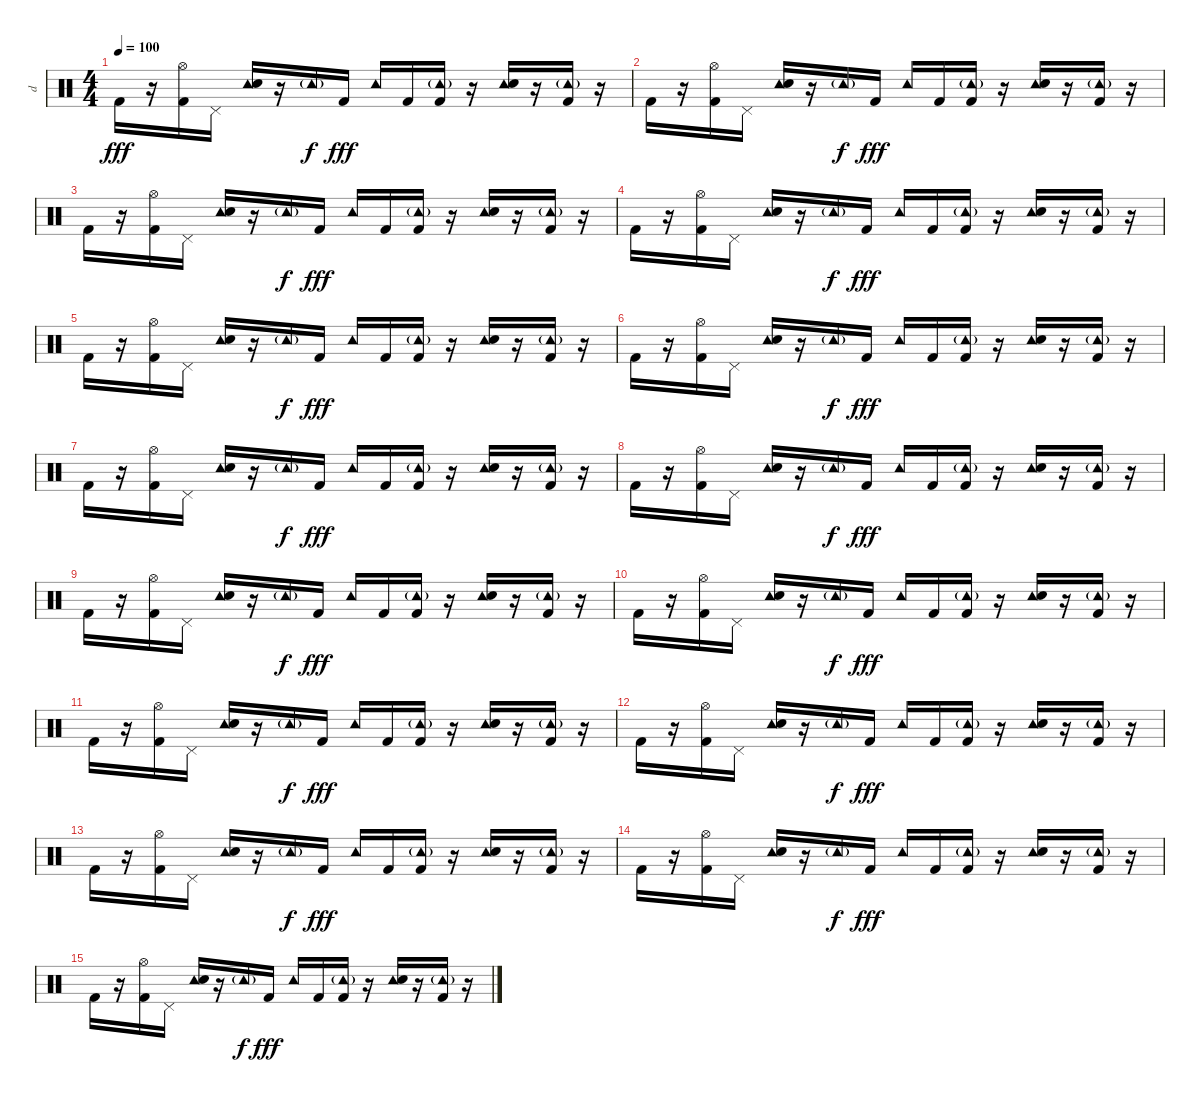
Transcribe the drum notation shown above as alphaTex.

\track ("d" "d") {instrument percussion}
\staff {score}
\articulation defaults
\ts (4 4)
\tempo 100
\clef neutral
\ks c "Kick (hit) 2".16{dy fff}
r.16 ("Hi-Hat (open)" "Kick (hit) 2").16 "Pedal Hi-Hat (hit)".16 ("Tambourine (hit)" "Snare (hit) 2").16 r.16 "Tambourine (hit)"{g}.16{dy f} "Kick (hit) 2".16{dy fff} "Tambourine (hit)".16 "Kick (hit) 2".16 ("Tambourine (hit)"{g} "Kick (hit) 2").16 r.16 ("Tambourine (hit)" "Snare (hit) 2").16 r.16 ("Tambourine (hit)"{g} "Kick (hit) 2").16 r.16 |
"Kick (hit) 2".16 r.16 ("Hi-Hat (open)" "Kick (hit) 2").16 "Pedal Hi-Hat (hit)".16 ("Tambourine (hit)" "Snare (hit) 2").16 r.16 "Tambourine (hit)"{g}.16{dy f} "Kick (hit) 2".16{dy fff} "Tambourine (hit)".16 "Kick (hit) 2".16 ("Tambourine (hit)"{g} "Kick (hit) 2").16 r.16 ("Tambourine (hit)" "Snare (hit) 2").16 r.16 ("Tambourine (hit)"{g} "Kick (hit) 2").16 r.16 |
"Kick (hit) 2".16 r.16 ("Hi-Hat (open)" "Kick (hit) 2").16 "Pedal Hi-Hat (hit)".16 ("Tambourine (hit)" "Snare (hit) 2").16 r.16 "Tambourine (hit)"{g}.16{dy f} "Kick (hit) 2".16{dy fff} "Tambourine (hit)".16 "Kick (hit) 2".16 ("Tambourine (hit)"{g} "Kick (hit) 2").16 r.16 ("Tambourine (hit)" "Snare (hit) 2").16 r.16 ("Tambourine (hit)"{g} "Kick (hit) 2").16 r.16 |
"Kick (hit) 2".16 r.16 ("Hi-Hat (open)" "Kick (hit) 2").16 "Pedal Hi-Hat (hit)".16 ("Tambourine (hit)" "Snare (hit) 2").16 r.16 "Tambourine (hit)"{g}.16{dy f} "Kick (hit) 2".16{dy fff} "Tambourine (hit)".16 "Kick (hit) 2".16 ("Tambourine (hit)"{g} "Kick (hit) 2").16 r.16 ("Tambourine (hit)" "Snare (hit) 2").16 r.16 ("Tambourine (hit)"{g} "Kick (hit) 2").16 r.16 |
"Kick (hit) 2".16 r.16 ("Hi-Hat (open)" "Kick (hit) 2").16 "Pedal Hi-Hat (hit)".16 ("Tambourine (hit)" "Snare (hit) 2").16 r.16 "Tambourine (hit)"{g}.16{dy f} "Kick (hit) 2".16{dy fff} "Tambourine (hit)".16 "Kick (hit) 2".16 ("Tambourine (hit)"{g} "Kick (hit) 2").16 r.16 ("Tambourine (hit)" "Snare (hit) 2").16 r.16 ("Tambourine (hit)"{g} "Kick (hit) 2").16 r.16 |
"Kick (hit) 2".16 r.16 ("Hi-Hat (open)" "Kick (hit) 2").16 "Pedal Hi-Hat (hit)".16 ("Tambourine (hit)" "Snare (hit) 2").16 r.16 "Tambourine (hit)"{g}.16{dy f} "Kick (hit) 2".16{dy fff} "Tambourine (hit)".16 "Kick (hit) 2".16 ("Tambourine (hit)"{g} "Kick (hit) 2").16 r.16 ("Tambourine (hit)" "Snare (hit) 2").16 r.16 ("Tambourine (hit)"{g} "Kick (hit) 2").16 r.16 |
"Kick (hit) 2".16 r.16 ("Hi-Hat (open)" "Kick (hit) 2").16 "Pedal Hi-Hat (hit)".16 ("Tambourine (hit)" "Snare (hit) 2").16 r.16 "Tambourine (hit)"{g}.16{dy f} "Kick (hit) 2".16{dy fff} "Tambourine (hit)".16 "Kick (hit) 2".16 ("Tambourine (hit)"{g} "Kick (hit) 2").16 r.16 ("Tambourine (hit)" "Snare (hit) 2").16 r.16 ("Tambourine (hit)"{g} "Kick (hit) 2").16 r.16 |
"Kick (hit) 2".16 r.16 ("Hi-Hat (open)" "Kick (hit) 2").16 "Pedal Hi-Hat (hit)".16 ("Tambourine (hit)" "Snare (hit) 2").16 r.16 "Tambourine (hit)"{g}.16{dy f} "Kick (hit) 2".16{dy fff} "Tambourine (hit)".16 "Kick (hit) 2".16 ("Tambourine (hit)"{g} "Kick (hit) 2").16 r.16 ("Tambourine (hit)" "Snare (hit) 2").16 r.16 ("Tambourine (hit)"{g} "Kick (hit) 2").16 r.16 |
"Kick (hit) 2".16 r.16 ("Hi-Hat (open)" "Kick (hit) 2").16 "Pedal Hi-Hat (hit)".16 ("Tambourine (hit)" "Snare (hit) 2").16 r.16 "Tambourine (hit)"{g}.16{dy f} "Kick (hit) 2".16{dy fff} "Tambourine (hit)".16 "Kick (hit) 2".16 ("Tambourine (hit)"{g} "Kick (hit) 2").16 r.16 ("Tambourine (hit)" "Snare (hit) 2").16 r.16 ("Tambourine (hit)"{g} "Kick (hit) 2").16 r.16 |
"Kick (hit) 2".16 r.16 ("Hi-Hat (open)" "Kick (hit) 2").16 "Pedal Hi-Hat (hit)".16 ("Tambourine (hit)" "Snare (hit) 2").16 r.16 "Tambourine (hit)"{g}.16{dy f} "Kick (hit) 2".16{dy fff} "Tambourine (hit)".16 "Kick (hit) 2".16 ("Tambourine (hit)"{g} "Kick (hit) 2").16 r.16 ("Tambourine (hit)" "Snare (hit) 2").16 r.16 ("Tambourine (hit)"{g} "Kick (hit) 2").16 r.16 |
"Kick (hit) 2".16 r.16 ("Hi-Hat (open)" "Kick (hit) 2").16 "Pedal Hi-Hat (hit)".16 ("Tambourine (hit)" "Snare (hit) 2").16 r.16 "Tambourine (hit)"{g}.16{dy f} "Kick (hit) 2".16{dy fff} "Tambourine (hit)".16 "Kick (hit) 2".16 ("Tambourine (hit)"{g} "Kick (hit) 2").16 r.16 ("Tambourine (hit)" "Snare (hit) 2").16 r.16 ("Tambourine (hit)"{g} "Kick (hit) 2").16 r.16 |
"Kick (hit) 2".16 r.16 ("Hi-Hat (open)" "Kick (hit) 2").16 "Pedal Hi-Hat (hit)".16 ("Tambourine (hit)" "Snare (hit) 2").16 r.16 "Tambourine (hit)"{g}.16{dy f} "Kick (hit) 2".16{dy fff} "Tambourine (hit)".16 "Kick (hit) 2".16 ("Tambourine (hit)"{g} "Kick (hit) 2").16 r.16 ("Tambourine (hit)" "Snare (hit) 2").16 r.16 ("Tambourine (hit)"{g} "Kick (hit) 2").16 r.16 |
"Kick (hit) 2".16 r.16 ("Hi-Hat (open)" "Kick (hit) 2").16 "Pedal Hi-Hat (hit)".16 ("Tambourine (hit)" "Snare (hit) 2").16 r.16 "Tambourine (hit)"{g}.16{dy f} "Kick (hit) 2".16{dy fff} "Tambourine (hit)".16 "Kick (hit) 2".16 ("Tambourine (hit)"{g} "Kick (hit) 2").16 r.16 ("Tambourine (hit)" "Snare (hit) 2").16 r.16 ("Tambourine (hit)"{g} "Kick (hit) 2").16 r.16 |
"Kick (hit) 2".16 r.16 ("Hi-Hat (open)" "Kick (hit) 2").16 "Pedal Hi-Hat (hit)".16 ("Tambourine (hit)" "Snare (hit) 2").16 r.16 "Tambourine (hit)"{g}.16{dy f} "Kick (hit) 2".16{dy fff} "Tambourine (hit)".16 "Kick (hit) 2".16 ("Tambourine (hit)"{g} "Kick (hit) 2").16 r.16 ("Tambourine (hit)" "Snare (hit) 2").16 r.16 ("Tambourine (hit)"{g} "Kick (hit) 2").16 r.16 |
"Kick (hit) 2".16 r.16 ("Hi-Hat (open)" "Kick (hit) 2").16 "Pedal Hi-Hat (hit)".16 ("Tambourine (hit)" "Snare (hit) 2").16 r.16 "Tambourine (hit)"{g}.16{dy f} "Kick (hit) 2".16{dy fff} "Tambourine (hit)".16 "Kick (hit) 2".16 ("Tambourine (hit)"{g} "Kick (hit) 2").16 r.16 ("Tambourine (hit)" "Snare (hit) 2").16 r.16 ("Tambourine (hit)"{g} "Kick (hit) 2").16 r.16
